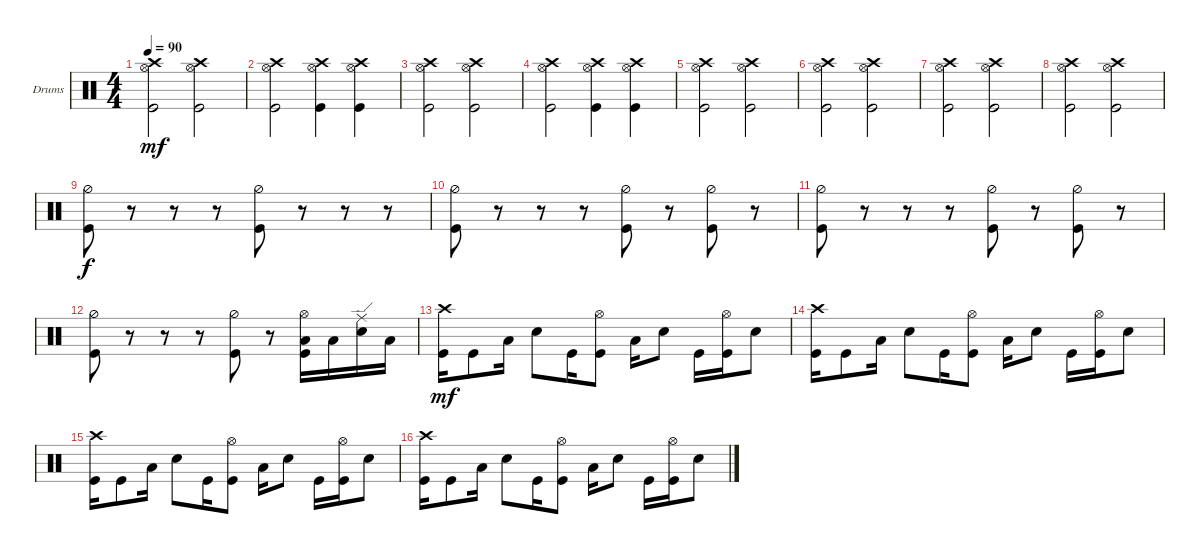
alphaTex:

\bracketExtendMode groupsimilarinstruments
\firstSystemTrackNameOrientation horizontal
\otherSystemsTrackNameOrientation horizontal
\track ("Drumkit" "Drums") {instrument percussion}
\staff {score}
\articulation defaults
\ts (4 4)
\tempo 90
\clef neutral
\scale
0.333333
\ks c
("Hi-Hat (open)" "Crash high (hit)" "Kick (hit)").2{dy mf} ("Hi-Hat (open)" "Crash high (hit)" "Kick (hit)").2 |
\scale
0.333333 ("Hi-Hat (open)" "Crash high (hit)" "Kick (hit)").2 ("Hi-Hat (open)" "Crash high (hit)" "Kick (hit)").4 ("Hi-Hat (open)" "Crash high (hit)" "Kick (hit)").4 |
\scale
0.333333 ("Hi-Hat (open)" "Crash high (hit)" "Kick (hit)").2 ("Hi-Hat (open)" "Crash high (hit)" "Kick (hit)").2 |
\scale
0.333333 ("Hi-Hat (open)" "Crash high (hit)" "Kick (hit)").2 ("Hi-Hat (open)" "Crash high (hit)" "Kick (hit)").4 ("Hi-Hat (open)" "Crash high (hit)" "Kick (hit)").4 |
\scale
0.333333 ("Hi-Hat (open)" "Crash high (hit)" "Kick (hit)").2 ("Hi-Hat (open)" "Crash high (hit)" "Kick (hit)").2 |
\scale
0.333333 ("Hi-Hat (open)" "Crash high (hit)" "Kick (hit)").2 ("Hi-Hat (open)" "Crash high (hit)" "Kick (hit)").2 |
\scale
0.333333 ("Hi-Hat (open)" "Crash high (hit)" "Kick (hit)").2 ("Hi-Hat (open)" "Crash high (hit)" "Kick (hit)").2 |
\scale
0.333333 ("Hi-Hat (open)" "Crash high (hit)" "Kick (hit)").2 ("Hi-Hat (open)" "Crash high (hit)" "Kick (hit)").2 |
\scale
0.333333 ("Kick (hit)" "Hi-Hat (half)").8{dy f} r.8 r.8 r.8 ("Kick (hit)" "Hi-Hat (half)").8 r.8 r.8 r.8 |
\scale
0.333333 ("Kick (hit)" "Hi-Hat (half)").8 r.8 r.8 r.8 ("Kick (hit)" "Hi-Hat (half)").8 r.8 ("Kick (hit)" "Hi-Hat (half)").8 r.8 |
\scale
0.333333 ("Kick (hit)" "Hi-Hat (half)").8 r.8 r.8 r.8 ("Kick (hit)" "Hi-Hat (half)").8 r.8 ("Kick (hit)" "Hi-Hat (half)").8 r.8 |
\scale
0.333333 ("Kick (hit)" "Hi-Hat (half)").8 r.8 r.8 r.8 ("Kick (hit)" "Hi-Hat (half)").8 r.8 ("Low Tom (hit)" "Kick (hit)" "Hi-Hat (open)").16 "Low Tom (hit)".16 ("Snare (hit) 2" "Ride (edge)").16 "Low Tom (hit)".16 |
\scale
0.333333 ("Kick (hit)" "Crash high (hit)").16{dy mf} "Kick (hit)".8 "Low Tom (hit)".16 "Snare (hit) 2".8 "Kick (hit)".16 ("Kick (hit)" "Hi-Hat (open)").8 "Low Tom (hit)".16 "Snare (hit) 2".8 "Kick (hit)".16 ("Kick (hit)" "Hi-Hat (open)").16 "Snare (hit) 2".8 |
\scale
0.333333 ("Kick (hit)" "Crash high (hit)").16 "Kick (hit)".8 "Low Tom (hit)".16 "Snare (hit) 2".8 "Kick (hit)".16 ("Kick (hit)" "Hi-Hat (open)").8 "Low Tom (hit)".16 "Snare (hit) 2".8 "Kick (hit)".16 ("Kick (hit)" "Hi-Hat (open)").16 "Snare (hit) 2".8 |
\scale
0.333333 ("Kick (hit)" "Crash high (hit)").16 "Kick (hit)".8 "Low Tom (hit)".16 "Snare (hit) 2".8 "Kick (hit)".16 ("Kick (hit)" "Hi-Hat (open)").8 "Low Tom (hit)".16 "Snare (hit) 2".8 "Kick (hit)".16 ("Kick (hit)" "Hi-Hat (open)").16 "Snare (hit) 2".8 |
\scale
0.333333 ("Kick (hit)" "Crash high (hit)").16 "Kick (hit)".8 "Low Tom (hit)".16 "Snare (hit) 2".8 "Kick (hit)".16 ("Kick (hit)" "Hi-Hat (open)").8 "Low Tom (hit)".16 "Snare (hit) 2".8 "Kick (hit)".16 ("Kick (hit)" "Hi-Hat (open)").16 "Snare (hit) 2".8
